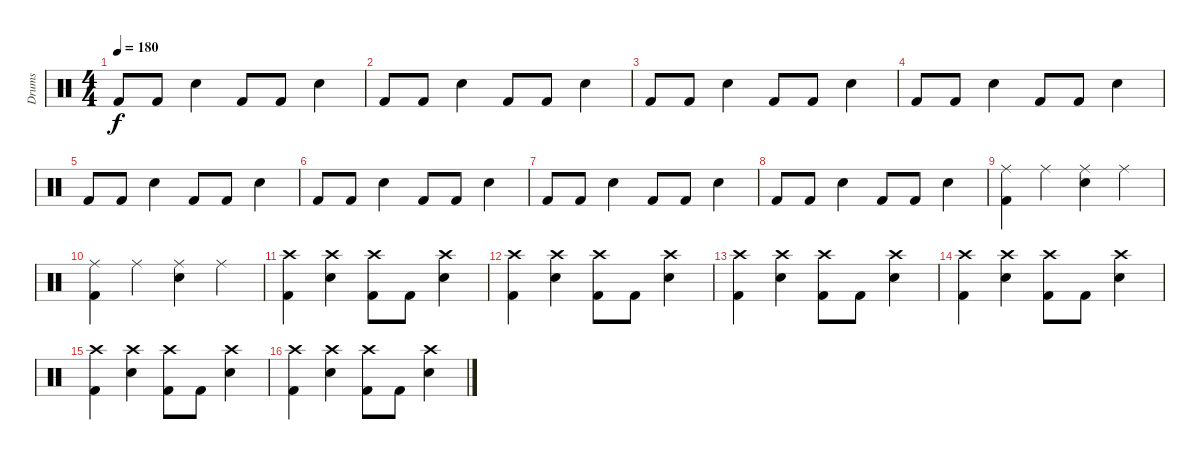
\track ("Drums" "Drums") {instrument percussion}
\staff {score}
\articulation defaults
\ts (4 4)
\tempo 180
\clef neutral
\ks c "Kick (hit) 2".8{dy f} "Kick (hit) 2".8 "Snare (hit) 2".4 "Kick (hit) 2".8 "Kick (hit) 2".8 "Snare (hit) 2".4
|
"Kick (hit) 2".8 "Kick (hit) 2".8 "Snare (hit) 2".4 "Kick (hit) 2".8 "Kick (hit) 2".8 "Snare (hit) 2".4 |
"Kick (hit) 2".8 "Kick (hit) 2".8 "Snare (hit) 2".4 "Kick (hit) 2".8 "Kick (hit) 2".8 "Snare (hit) 2".4 |
"Kick (hit) 2".8 "Kick (hit) 2".8 "Snare (hit) 2".4 "Kick (hit) 2".8 "Kick (hit) 2".8 "Snare (hit) 2".4 |
"Kick (hit) 2".8 "Kick (hit) 2".8 "Snare (hit) 2".4 "Kick (hit) 2".8 "Kick (hit) 2".8 "Snare (hit) 2".4 |
"Kick (hit) 2".8 "Kick (hit) 2".8 "Snare (hit) 2".4 "Kick (hit) 2".8 "Kick (hit) 2".8 "Snare (hit) 2".4 |
"Kick (hit) 2".8 "Kick (hit) 2".8 "Snare (hit) 2".4 "Kick (hit) 2".8 "Kick (hit) 2".8 "Snare (hit) 2".4 |
"Kick (hit) 2".8 "Kick (hit) 2".8 "Snare (hit) 2".4 "Kick (hit) 2".8 "Kick (hit) 2".8 "Snare (hit) 2".4 |
("Kick (hit) 2" "Ride (middle)").4 "Ride (middle)".4 ("Snare (hit) 2" "Ride (middle)").4 "Ride (middle)".4 |
("Kick (hit) 2" "Ride (middle)").4 "Ride (middle)".4 ("Snare (hit) 2" "Ride (middle)").4 "Ride (middle)".4 |
("Kick (hit) 2" "Crash high (hit)").4 ("Snare (hit) 2" "Crash high (hit)").4 ("Kick (hit) 2" "Crash high (hit)").8 "Kick (hit) 2".8 ("Snare (hit) 2" "Crash high (hit)").4 |
("Kick (hit) 2" "Crash high (hit)").4 ("Snare (hit) 2" "Crash high (hit)").4 ("Kick (hit) 2" "Crash high (hit)").8 "Kick (hit) 2".8 ("Snare (hit) 2" "Crash high (hit)").4 |
("Kick (hit) 2" "Crash high (hit)").4 ("Snare (hit) 2" "Crash high (hit)").4 ("Kick (hit) 2" "Crash high (hit)").8 "Kick (hit) 2".8 ("Snare (hit) 2" "Crash high (hit)").4 |
("Kick (hit) 2" "Crash high (hit)").4 ("Snare (hit) 2" "Crash high (hit)").4 ("Kick (hit) 2" "Crash high (hit)").8 "Kick (hit) 2".8 ("Snare (hit) 2" "Crash high (hit)").4 |
("Kick (hit) 2" "Crash high (hit)").4 ("Snare (hit) 2" "Crash high (hit)").4 ("Kick (hit) 2" "Crash high (hit)").8 "Kick (hit) 2".8 ("Snare (hit) 2" "Crash high (hit)").4 |
("Kick (hit) 2" "Crash high (hit)").4 ("Snare (hit) 2" "Crash high (hit)").4 ("Kick (hit) 2" "Crash high (hit)").8 "Kick (hit) 2".8 ("Snare (hit) 2" "Crash high (hit)").4
